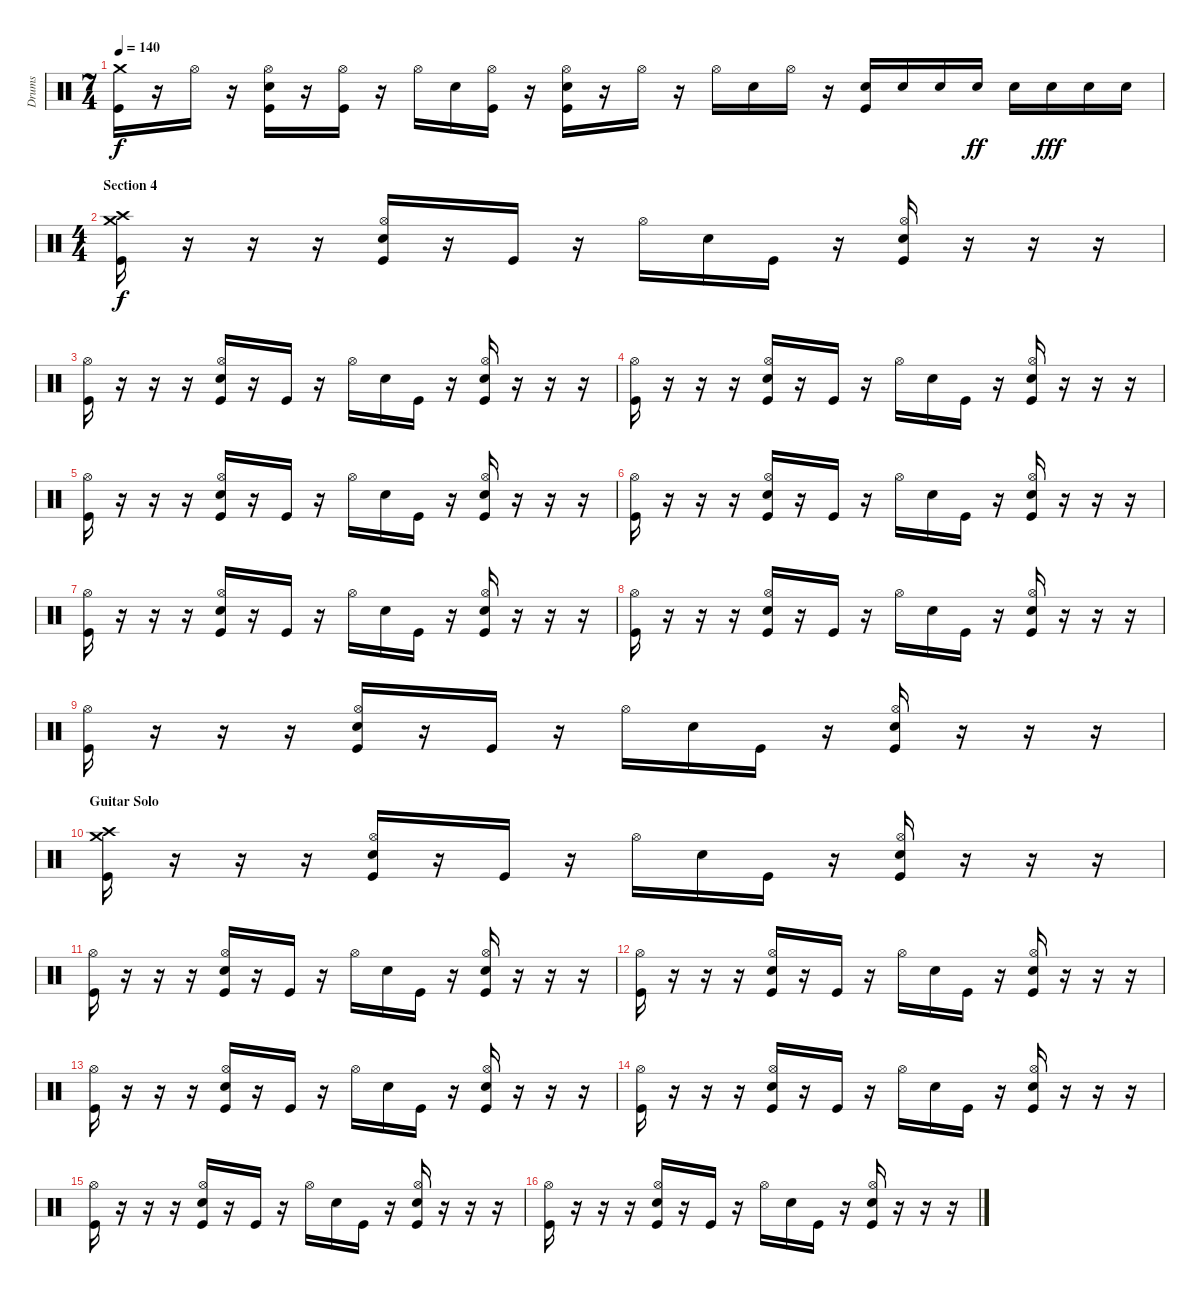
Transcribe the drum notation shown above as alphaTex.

\track ("Drums" "Drums") {instrument percussion}
\staff {score}
\articulation defaults
\ts (7 4)
\tempo 140
\clef neutral
\ks c
("Crash medium (hit)" "Kick (hit)").16{dy f} r.16 "Hi-Hat (open)".16 r.16 ("Hi-Hat (open)" "Electric Snare (hit)" "Kick (hit)").16 r.16 ("Hi-Hat (open)" "Kick (hit)").16 r.16 "Hi-Hat (open)".16 "Electric Snare (hit)".16 ("Hi-Hat (open)" "Kick (hit)").16 r.16 ("Hi-Hat (open)" "Electric Snare (hit)" "Kick (hit)").16 r.16 "Hi-Hat (open)".16 r.16 "Hi-Hat (open)".16 "Electric Snare (hit)".16 "Hi-Hat (open)".16 r.16 ("Electric Snare (hit)" "Kick (hit)").16 "Electric Snare (hit)".16 "Electric Snare (hit)".16 "Electric Snare (hit)".16{dy ff} "Electric Snare (hit)".16 "Electric Snare (hit)".16{dy fff} "Electric Snare (hit)".16 "Electric Snare (hit)".16 |
\ts (4 4)
\section ("" "Section 4")
("Crash medium (hit)" "Crash high (hit)" "Kick (hit)").16{dy f} r.16 r.16 r.16 ("Hi-Hat (open)" "Electric Snare (hit)" "Kick (hit)").16 r.16 "Kick (hit)".16 r.16 "Hi-Hat (open)".16 "Electric Snare (hit)".16 "Kick (hit)".16 r.16 ("Hi-Hat (open)" "Electric Snare (hit)" "Kick (hit)").16 r.16 r.16 r.16 |
("Hi-Hat (open)" "Kick (hit)").16 r.16 r.16 r.16 ("Hi-Hat (open)" "Electric Snare (hit)" "Kick (hit)").16 r.16 "Kick (hit)".16 r.16 "Hi-Hat (open)".16 "Electric Snare (hit)".16 "Kick (hit)".16 r.16 ("Hi-Hat (open)" "Electric Snare (hit)" "Kick (hit)").16 r.16 r.16 r.16 |
("Hi-Hat (open)" "Kick (hit)").16 r.16 r.16 r.16 ("Hi-Hat (open)" "Electric Snare (hit)" "Kick (hit)").16 r.16 "Kick (hit)".16 r.16 "Hi-Hat (open)".16 "Electric Snare (hit)".16 "Kick (hit)".16 r.16 ("Hi-Hat (open)" "Electric Snare (hit)" "Kick (hit)").16 r.16 r.16 r.16 |
("Hi-Hat (open)" "Kick (hit)").16 r.16 r.16 r.16 ("Hi-Hat (open)" "Electric Snare (hit)" "Kick (hit)").16 r.16 "Kick (hit)".16 r.16 "Hi-Hat (open)".16 "Electric Snare (hit)".16 "Kick (hit)".16 r.16 ("Hi-Hat (open)" "Electric Snare (hit)" "Kick (hit)").16 r.16 r.16 r.16 |
("Hi-Hat (open)" "Kick (hit)").16 r.16 r.16 r.16 ("Hi-Hat (open)" "Electric Snare (hit)" "Kick (hit)").16 r.16 "Kick (hit)".16 r.16 "Hi-Hat (open)".16 "Electric Snare (hit)".16 "Kick (hit)".16 r.16 ("Hi-Hat (open)" "Electric Snare (hit)" "Kick (hit)").16 r.16 r.16 r.16 |
("Hi-Hat (open)" "Kick (hit)").16 r.16 r.16 r.16 ("Hi-Hat (open)" "Electric Snare (hit)" "Kick (hit)").16 r.16 "Kick (hit)".16 r.16 "Hi-Hat (open)".16 "Electric Snare (hit)".16 "Kick (hit)".16 r.16 ("Hi-Hat (open)" "Electric Snare (hit)" "Kick (hit)").16 r.16 r.16 r.16 |
("Hi-Hat (open)" "Kick (hit)").16 r.16 r.16 r.16 ("Hi-Hat (open)" "Electric Snare (hit)" "Kick (hit)").16 r.16 "Kick (hit)".16 r.16 "Hi-Hat (open)".16 "Electric Snare (hit)".16 "Kick (hit)".16 r.16 ("Hi-Hat (open)" "Electric Snare (hit)" "Kick (hit)").16 r.16 r.16 r.16 |
("Hi-Hat (open)" "Kick (hit)").16 r.16 r.16 r.16 ("Hi-Hat (open)" "Electric Snare (hit)" "Kick (hit)").16 r.16 "Kick (hit)".16 r.16 "Hi-Hat (open)".16 "Electric Snare (hit)".16 "Kick (hit)".16 r.16 ("Hi-Hat (open)" "Electric Snare (hit)" "Kick (hit)").16 r.16 r.16 r.16 |
\section ("" "Guitar Solo")
("Crash medium (hit)" "Crash high (hit)" "Kick (hit)").16 r.16 r.16 r.16 ("Hi-Hat (open)" "Electric Snare (hit)" "Kick (hit)").16 r.16 "Kick (hit)".16 r.16 "Hi-Hat (open)".16 "Electric Snare (hit)".16 "Kick (hit)".16 r.16 ("Hi-Hat (open)" "Electric Snare (hit)" "Kick (hit)").16 r.16 r.16 r.16 |
("Hi-Hat (open)" "Kick (hit)").16 r.16 r.16 r.16 ("Hi-Hat (open)" "Electric Snare (hit)" "Kick (hit)").16 r.16 "Kick (hit)".16 r.16 "Hi-Hat (open)".16 "Electric Snare (hit)".16 "Kick (hit)".16 r.16 ("Hi-Hat (open)" "Electric Snare (hit)" "Kick (hit)").16 r.16 r.16 r.16 |
("Hi-Hat (open)" "Kick (hit)").16 r.16 r.16 r.16 ("Hi-Hat (open)" "Electric Snare (hit)" "Kick (hit)").16 r.16 "Kick (hit)".16 r.16 "Hi-Hat (open)".16 "Electric Snare (hit)".16 "Kick (hit)".16 r.16 ("Hi-Hat (open)" "Electric Snare (hit)" "Kick (hit)").16 r.16 r.16 r.16 |
("Hi-Hat (open)" "Kick (hit)").16 r.16 r.16 r.16 ("Hi-Hat (open)" "Electric Snare (hit)" "Kick (hit)").16 r.16 "Kick (hit)".16 r.16 "Hi-Hat (open)".16 "Electric Snare (hit)".16 "Kick (hit)".16 r.16 ("Hi-Hat (open)" "Electric Snare (hit)" "Kick (hit)").16 r.16 r.16 r.16 |
("Hi-Hat (open)" "Kick (hit)").16 r.16 r.16 r.16 ("Hi-Hat (open)" "Electric Snare (hit)" "Kick (hit)").16 r.16 "Kick (hit)".16 r.16 "Hi-Hat (open)".16 "Electric Snare (hit)".16 "Kick (hit)".16 r.16 ("Hi-Hat (open)" "Electric Snare (hit)" "Kick (hit)").16 r.16 r.16 r.16 |
("Hi-Hat (open)" "Kick (hit)").16 r.16 r.16 r.16 ("Hi-Hat (open)" "Electric Snare (hit)" "Kick (hit)").16 r.16 "Kick (hit)".16 r.16 "Hi-Hat (open)".16 "Electric Snare (hit)".16 "Kick (hit)".16 r.16 ("Hi-Hat (open)" "Electric Snare (hit)" "Kick (hit)").16 r.16 r.16 r.16 |
("Hi-Hat (open)" "Kick (hit)").16 r.16 r.16 r.16 ("Hi-Hat (open)" "Electric Snare (hit)" "Kick (hit)").16 r.16 "Kick (hit)".16 r.16 "Hi-Hat (open)".16 "Electric Snare (hit)".16 "Kick (hit)".16 r.16 ("Hi-Hat (open)" "Electric Snare (hit)" "Kick (hit)").16 r.16 r.16 r.16
